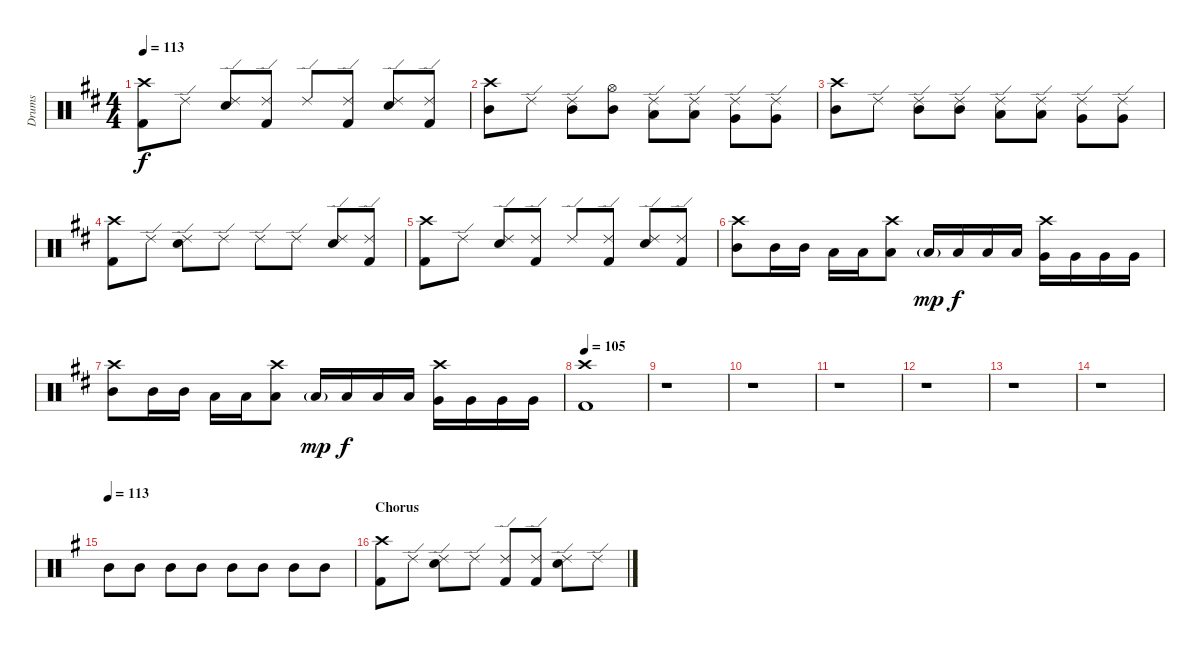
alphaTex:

\track ("Drums" "Drums") {instrument percussion}
\staff {score}
\articulation defaults
\ts (4 4)
\tempo 113
\clef neutral
\ks d
("Crash high (hit)" "Kick (hit) 2").8{dy f} "Ride (edge) 2".8 ("Ride (edge) 2" "Electric Snare (hit)").8 ("Ride (edge) 2" "Kick (hit) 2").8 "Ride (edge) 2".8 ("Ride (edge) 2" "Kick (hit) 2").8 ("Ride (edge) 2" "Electric Snare (hit)").8 ("Ride (edge) 2" "Kick (hit) 2").8 |
("Crash high (hit)" "Mid Tom (hit)").8 "Ride (edge) 2".8 ("Ride (edge) 2" "Mid Tom (hit)").8 ("Hi-Hat (open)" "Mid Tom (hit)").8 ("Ride (edge) 2" "Low Tom (hit)").8 ("Ride (edge) 2" "Low Tom (hit)").8 ("Ride (edge) 2" "Very Low Tom (hit)").8 ("Ride (edge) 2" "Very Low Tom (hit)").8 |
("Crash high (hit)" "Mid Tom (hit)").8 "Ride (edge) 2".8 ("Ride (edge) 2" "Mid Tom (hit)").8 ("Ride (edge) 2" "Mid Tom (hit)").8 ("Ride (edge) 2" "Low Tom (hit)").8 ("Ride (edge) 2" "Low Tom (hit)").8 ("Ride (edge) 2" "Very Low Tom (hit)").8 ("Ride (edge) 2" "Very Low Tom (hit)").8 |
("Crash high (hit)" "Kick (hit) 2").8 "Ride (edge) 2".8 ("Ride (edge) 2" "Electric Snare (hit)").8 "Ride (edge) 2".8 "Ride (edge) 2".8 "Ride (edge) 2".8 ("Ride (edge) 2" "Electric Snare (hit)").8 ("Ride (edge) 2" "Kick (hit) 2").8 |
("Crash high (hit)" "Kick (hit) 2").8 "Ride (edge) 2".8 ("Ride (edge) 2" "Electric Snare (hit)").8 ("Ride (edge) 2" "Kick (hit) 2").8 "Ride (edge) 2".8 ("Ride (edge) 2" "Kick (hit) 2").8 ("Ride (edge) 2" "Electric Snare (hit)").8 ("Ride (edge) 2" "Kick (hit) 2").8 |
("Crash high (hit)" "Mid Tom (hit)").8 "Mid Tom (hit)".16 "Mid Tom (hit)".16 "Low Tom (hit)".16 "Low Tom (hit)".16 ("Crash high (hit)" "Low Tom (hit)").8 "Low Tom (hit)"{g}.16{dy mp} "Low Tom (hit)".16{dy f} "Low Tom (hit)".16 "Low Tom (hit)".16 ("Crash high (hit)" "Very Low Tom (hit)").16 "Very Low Tom (hit)".16 "Very Low Tom (hit)".16 "Very Low Tom (hit)".16 |
("Crash high (hit)" "Mid Tom (hit)").8 "Mid Tom (hit)".16 "Mid Tom (hit)".16 "Low Tom (hit)".16 "Low Tom (hit)".16 ("Crash high (hit)" "Low Tom (hit)").8 "Low Tom (hit)"{g}.16{dy mp} "Low Tom (hit)".16{dy f} "Low Tom (hit)".16 "Low Tom (hit)".16 ("Crash high (hit)" "Very Low Tom (hit)").16 "Very Low Tom (hit)".16 "Very Low Tom (hit)".16 "Very Low Tom (hit)".16 |
\tempo 105
("Crash high (hit)" "Kick (hit) 2").1 |
r.1 |
r.1 |
r.1 |
r.1 |
r.1 |
r.1 |
\tempo 113
\ks g "Mid Tom (hit)".8 "Mid Tom (hit)".8 "Mid Tom (hit)".8 "Mid Tom (hit)".8 "Mid Tom (hit)".8 "Mid Tom (hit)".8 "Mid Tom (hit)".8 "Mid Tom (hit)".8
|
\section ("" "Chorus")
("Crash high (hit)" "Kick (hit) 2").8 "Ride (edge) 2".8 ("Ride (edge) 2" "Electric Snare (hit)").8 "Ride (edge) 2".8 ("Ride (edge) 2" "Kick (hit) 2").8 ("Ride (edge) 2" "Kick (hit) 2").8 ("Ride (edge) 2" "Electric Snare (hit)").8 "Ride (edge) 2".8
